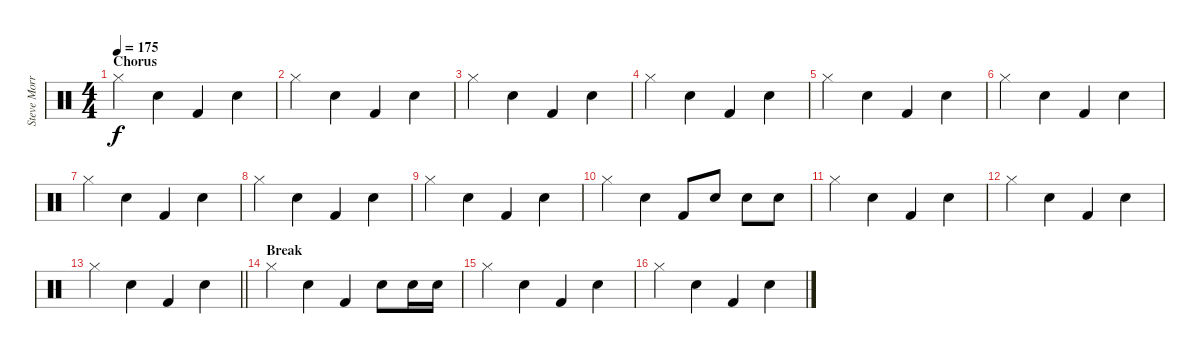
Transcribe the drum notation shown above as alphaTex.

\track ("Steve Morris" "Steve Morr") {instrument percussion}
\staff {score}
\articulation defaults
\ts (4 4)
\section ("" "Chorus")
\tempo 175
\clef neutral
\ks c "Hi-Hat (closed)".4{dy f} "Snare (hit) 2".4 "Kick (hit) 2".4 "Snare (hit) 2".4
|
"Hi-Hat (closed)".4 "Snare (hit) 2".4 "Kick (hit) 2".4 "Snare (hit) 2".4 |
"Hi-Hat (closed)".4 "Snare (hit) 2".4 "Kick (hit) 2".4 "Snare (hit) 2".4 |
"Hi-Hat (closed)".4 "Snare (hit) 2".4 "Kick (hit) 2".4 "Snare (hit) 2".4 |
"Hi-Hat (closed)".4 "Snare (hit) 2".4 "Kick (hit) 2".4 "Snare (hit) 2".4 |
"Hi-Hat (closed)".4 "Snare (hit) 2".4 "Kick (hit) 2".4 "Snare (hit) 2".4 |
"Hi-Hat (closed)".4 "Snare (hit) 2".4 "Kick (hit) 2".4 "Snare (hit) 2".4 |
"Hi-Hat (closed)".4 "Snare (hit) 2".4 "Kick (hit) 2".4 "Snare (hit) 2".4 |
"Hi-Hat (closed)".4 "Snare (hit) 2".4 "Kick (hit) 2".4 "Snare (hit) 2".4 |
"Hi-Hat (closed)".4 "Snare (hit) 2".4 "Kick (hit) 2".8 "Snare (hit) 2".8 "Snare (hit) 2".8 "Snare (hit) 2".8 |
"Hi-Hat (closed)".4 "Snare (hit) 2".4 "Kick (hit) 2".4 "Snare (hit) 2".4 |
"Hi-Hat (closed)".4 "Snare (hit) 2".4 "Kick (hit) 2".4 "Snare (hit) 2".4 |
\barLineRight lightlight "Hi-Hat (closed)".4 "Snare (hit) 2".4 "Kick (hit) 2".4 "Snare (hit) 2".4
|
\section ("" "Break")
"Hi-Hat (closed)".4 "Snare (hit) 2".4 "Kick (hit) 2".4 "Snare (hit) 2".8 "Snare (hit) 2".16 "Snare (hit) 2".16 |
"Hi-Hat (closed)".4 "Snare (hit) 2".4 "Kick (hit) 2".4 "Snare (hit) 2".4 |
"Hi-Hat (closed)".4 "Snare (hit) 2".4 "Kick (hit) 2".4 "Snare (hit) 2".4
